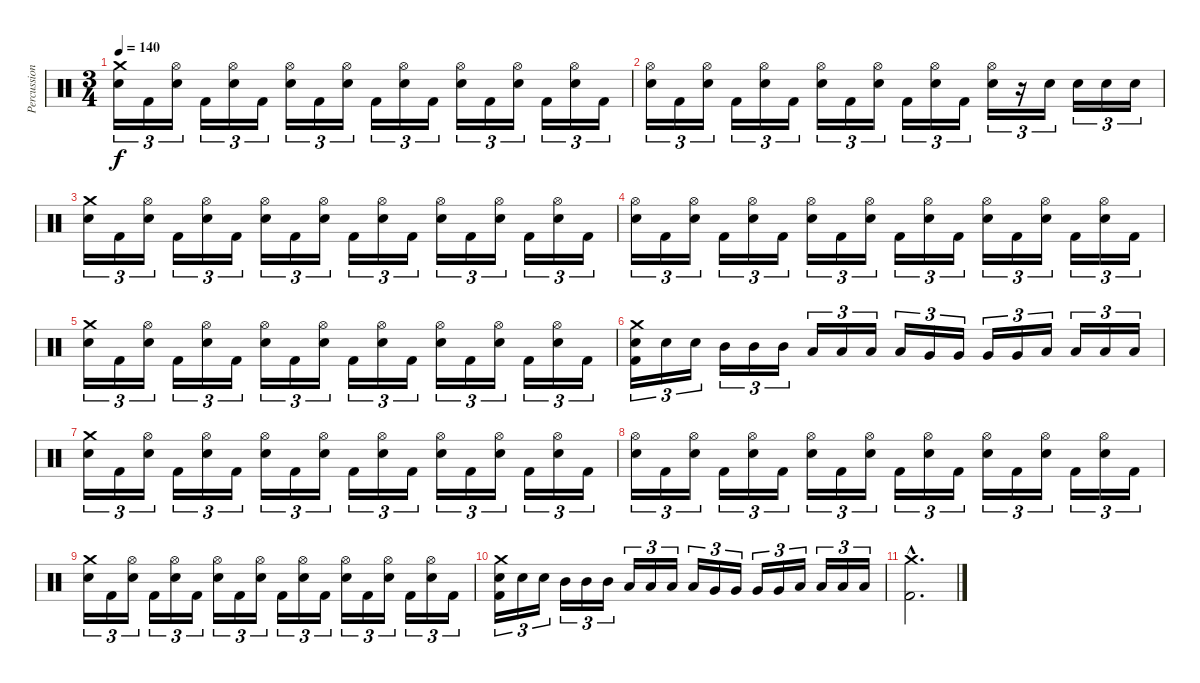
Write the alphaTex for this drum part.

\track ("Percussion" "Percussion") {instrument percussion}
\staff {score}
\articulation defaults
\ts (3 4)
\tempo 140
\clef neutral
\ks c
("Crash medium (hit)" "Electric Snare (hit)").16{tu (3 2) dy f} "Kick (hit) 2".16{tu (3 2)} ("Hi-Hat (open)" "Electric Snare (hit)").16{tu (3 2)} "Kick (hit) 2".16{tu (3 2)} ("Hi-Hat (open)" "Electric Snare (hit)").16{tu (3 2)} "Kick (hit) 2".16{tu (3 2)} ("Hi-Hat (open)" "Electric Snare (hit)").16{tu (3 2)} "Kick (hit) 2".16{tu (3 2)} ("Hi-Hat (open)" "Electric Snare (hit)").16{tu (3 2)} "Kick (hit) 2".16{tu (3 2)} ("Hi-Hat (open)" "Electric Snare (hit)").16{tu (3 2)} "Kick (hit) 2".16{tu (3 2)} ("Hi-Hat (open)" "Electric Snare (hit)").16{tu (3 2)} "Kick (hit) 2".16{tu (3 2)} ("Hi-Hat (open)" "Electric Snare (hit)").16{tu (3 2)} "Kick (hit) 2".16{tu (3 2)} ("Hi-Hat (open)" "Electric Snare (hit)").16{tu (3 2)} "Kick (hit) 2".16{tu (3 2)} |
("Hi-Hat (open)" "Electric Snare (hit)").16{tu (3 2)} "Kick (hit) 2".16{tu (3 2)} ("Hi-Hat (open)" "Electric Snare (hit)").16{tu (3 2)} "Kick (hit) 2".16{tu (3 2)} ("Hi-Hat (open)" "Electric Snare (hit)").16{tu (3 2)} "Kick (hit) 2".16{tu (3 2)} ("Hi-Hat (open)" "Electric Snare (hit)").16{tu (3 2)} "Kick (hit) 2".16{tu (3 2)} ("Hi-Hat (open)" "Electric Snare (hit)").16{tu (3 2)} "Kick (hit) 2".16{tu (3 2)} ("Hi-Hat (open)" "Electric Snare (hit)").16{tu (3 2)} "Kick (hit) 2".16{tu (3 2)} ("Hi-Hat (open)" "Electric Snare (hit)").16{tu (3 2)} r.16{tu (3 2)} "Electric Snare (hit)".16{tu (3 2)} "Electric Snare (hit)".16{tu (3 2)} "Electric Snare (hit)".16{tu (3 2)} "Electric Snare (hit)".16{tu (3 2)} |
("Crash medium (hit)" "Electric Snare (hit)").16{tu (3 2)} "Kick (hit) 2".16{tu (3 2)} ("Hi-Hat (open)" "Electric Snare (hit)").16{tu (3 2)} "Kick (hit) 2".16{tu (3 2)} ("Hi-Hat (open)" "Electric Snare (hit)").16{tu (3 2)} "Kick (hit) 2".16{tu (3 2)} ("Hi-Hat (open)" "Electric Snare (hit)").16{tu (3 2)} "Kick (hit) 2".16{tu (3 2)} ("Hi-Hat (open)" "Electric Snare (hit)").16{tu (3 2)} "Kick (hit) 2".16{tu (3 2)} ("Hi-Hat (open)" "Electric Snare (hit)").16{tu (3 2)} "Kick (hit) 2".16{tu (3 2)} ("Hi-Hat (open)" "Electric Snare (hit)").16{tu (3 2)} "Kick (hit) 2".16{tu (3 2)} ("Hi-Hat (open)" "Electric Snare (hit)").16{tu (3 2)} "Kick (hit) 2".16{tu (3 2)} ("Hi-Hat (open)" "Electric Snare (hit)").16{tu (3 2)} "Kick (hit) 2".16{tu (3 2)} |
("Hi-Hat (open)" "Electric Snare (hit)").16{tu (3 2)} "Kick (hit) 2".16{tu (3 2)} ("Hi-Hat (open)" "Electric Snare (hit)").16{tu (3 2)} "Kick (hit) 2".16{tu (3 2)} ("Hi-Hat (open)" "Electric Snare (hit)").16{tu (3 2)} "Kick (hit) 2".16{tu (3 2)} ("Hi-Hat (open)" "Electric Snare (hit)").16{tu (3 2)} "Kick (hit) 2".16{tu (3 2)} ("Hi-Hat (open)" "Electric Snare (hit)").16{tu (3 2)} "Kick (hit) 2".16{tu (3 2)} ("Hi-Hat (open)" "Electric Snare (hit)").16{tu (3 2)} "Kick (hit) 2".16{tu (3 2)} ("Hi-Hat (open)" "Electric Snare (hit)").16{tu (3 2)} "Kick (hit) 2".16{tu (3 2)} ("Hi-Hat (open)" "Electric Snare (hit)").16{tu (3 2)} "Kick (hit) 2".16{tu (3 2)} ("Hi-Hat (open)" "Electric Snare (hit)").16{tu (3 2)} "Kick (hit) 2".16{tu (3 2)} |
("Crash medium (hit)" "Electric Snare (hit)").16{tu (3 2)} "Kick (hit) 2".16{tu (3 2)} ("Hi-Hat (open)" "Electric Snare (hit)").16{tu (3 2)} "Kick (hit) 2".16{tu (3 2)} ("Hi-Hat (open)" "Electric Snare (hit)").16{tu (3 2)} "Kick (hit) 2".16{tu (3 2)} ("Hi-Hat (open)" "Electric Snare (hit)").16{tu (3 2)} "Kick (hit) 2".16{tu (3 2)} ("Hi-Hat (open)" "Electric Snare (hit)").16{tu (3 2)} "Kick (hit) 2".16{tu (3 2)} ("Hi-Hat (open)" "Electric Snare (hit)").16{tu (3 2)} "Kick (hit) 2".16{tu (3 2)} ("Hi-Hat (open)" "Electric Snare (hit)").16{tu (3 2)} "Kick (hit) 2".16{tu (3 2)} ("Hi-Hat (open)" "Electric Snare (hit)").16{tu (3 2)} "Kick (hit) 2".16{tu (3 2)} ("Hi-Hat (open)" "Electric Snare (hit)").16{tu (3 2)} "Kick (hit) 2".16{tu (3 2)} |
("Crash medium (hit)" "Electric Snare (hit)" "Kick (hit) 2").16{tu (3 2)} "Electric Snare (hit)".16{tu (3 2)} "Electric Snare (hit)".16{tu (3 2)} "Mid Tom (hit)".16{tu (3 2)} "Mid Tom (hit)".16{tu (3 2)} "Mid Tom (hit)".16{tu (3 2)} "Low Tom (hit)".16{tu (3 2)} "Low Tom (hit)".16{tu (3 2)} "Low Tom (hit)".16{tu (3 2)} "Low Tom (hit)".16{tu (3 2)} "Very Low Tom (hit)".16{tu (3 2)} "Very Low Tom (hit)".16{tu (3 2)} "Very Low Tom (hit)".16{tu (3 2)} "Very Low Tom (hit)".16{tu (3 2)} "Low Floor Tom (hit)".16{tu (3 2)} "Low Floor Tom (hit)".16{tu (3 2)} "Low Floor Tom (hit)".16{tu (3 2)} "Low Floor Tom (hit)".16{tu (3 2)} |
("Crash medium (hit)" "Electric Snare (hit)").16{tu (3 2)} "Kick (hit) 2".16{tu (3 2)} ("Hi-Hat (open)" "Electric Snare (hit)").16{tu (3 2)} "Kick (hit) 2".16{tu (3 2)} ("Hi-Hat (open)" "Electric Snare (hit)").16{tu (3 2)} "Kick (hit) 2".16{tu (3 2)} ("Hi-Hat (open)" "Electric Snare (hit)").16{tu (3 2)} "Kick (hit) 2".16{tu (3 2)} ("Hi-Hat (open)" "Electric Snare (hit)").16{tu (3 2)} "Kick (hit) 2".16{tu (3 2)} ("Hi-Hat (open)" "Electric Snare (hit)").16{tu (3 2)} "Kick (hit) 2".16{tu (3 2)} ("Hi-Hat (open)" "Electric Snare (hit)").16{tu (3 2)} "Kick (hit) 2".16{tu (3 2)} ("Hi-Hat (open)" "Electric Snare (hit)").16{tu (3 2)} "Kick (hit) 2".16{tu (3 2)} ("Hi-Hat (open)" "Electric Snare (hit)").16{tu (3 2)} "Kick (hit) 2".16{tu (3 2)} |
("Hi-Hat (open)" "Electric Snare (hit)").16{tu (3 2)} "Kick (hit) 2".16{tu (3 2)} ("Hi-Hat (open)" "Electric Snare (hit)").16{tu (3 2)} "Kick (hit) 2".16{tu (3 2)} ("Hi-Hat (open)" "Electric Snare (hit)").16{tu (3 2)} "Kick (hit) 2".16{tu (3 2)} ("Hi-Hat (open)" "Electric Snare (hit)").16{tu (3 2)} "Kick (hit) 2".16{tu (3 2)} ("Hi-Hat (open)" "Electric Snare (hit)").16{tu (3 2)} "Kick (hit) 2".16{tu (3 2)} ("Hi-Hat (open)" "Electric Snare (hit)").16{tu (3 2)} "Kick (hit) 2".16{tu (3 2)} ("Hi-Hat (open)" "Electric Snare (hit)").16{tu (3 2)} "Kick (hit) 2".16{tu (3 2)} ("Hi-Hat (open)" "Electric Snare (hit)").16{tu (3 2)} "Kick (hit) 2".16{tu (3 2)} ("Hi-Hat (open)" "Electric Snare (hit)").16{tu (3 2)} "Kick (hit) 2".16{tu (3 2)} |
("Crash medium (hit)" "Electric Snare (hit)").16{tu (3 2)} "Kick (hit) 2".16{tu (3 2)} ("Hi-Hat (open)" "Electric Snare (hit)").16{tu (3 2)} "Kick (hit) 2".16{tu (3 2)} ("Hi-Hat (open)" "Electric Snare (hit)").16{tu (3 2)} "Kick (hit) 2".16{tu (3 2)} ("Hi-Hat (open)" "Electric Snare (hit)").16{tu (3 2)} "Kick (hit) 2".16{tu (3 2)} ("Hi-Hat (open)" "Electric Snare (hit)").16{tu (3 2)} "Kick (hit) 2".16{tu (3 2)} ("Hi-Hat (open)" "Electric Snare (hit)").16{tu (3 2)} "Kick (hit) 2".16{tu (3 2)} ("Hi-Hat (open)" "Electric Snare (hit)").16{tu (3 2)} "Kick (hit) 2".16{tu (3 2)} ("Hi-Hat (open)" "Electric Snare (hit)").16{tu (3 2)} "Kick (hit) 2".16{tu (3 2)} ("Hi-Hat (open)" "Electric Snare (hit)").16{tu (3 2)} "Kick (hit) 2".16{tu (3 2)} |
("Crash medium (hit)" "Electric Snare (hit)" "Kick (hit) 2").16{tu (3 2)} "Electric Snare (hit)".16{tu (3 2)} "Electric Snare (hit)".16{tu (3 2)} "Mid Tom (hit)".16{tu (3 2)} "Mid Tom (hit)".16{tu (3 2)} "Mid Tom (hit)".16{tu (3 2)} "Low Tom (hit)".16{tu (3 2)} "Low Tom (hit)".16{tu (3 2)} "Low Tom (hit)".16{tu (3 2)} "Low Tom (hit)".16{tu (3 2)} "Very Low Tom (hit)".16{tu (3 2)} "Very Low Tom (hit)".16{tu (3 2)} "Very Low Tom (hit)".16{tu (3 2)} "Very Low Tom (hit)".16{tu (3 2)} "Low Floor Tom (hit)".16{tu (3 2)} "Low Floor Tom (hit)".16{tu (3 2)} "Low Floor Tom (hit)".16{tu (3 2)} "Low Floor Tom (hit)".16{tu (3 2)} |
("Crash medium (hit)"{hac} "Kick (hit) 2"{hac}).2{d}
